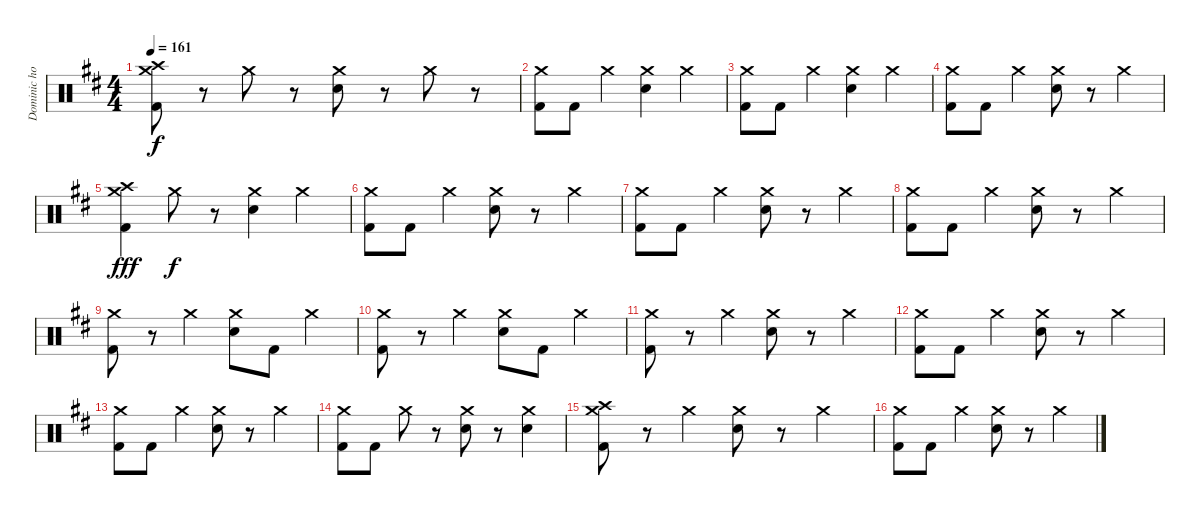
\track ("Dominic howard" "Dominic ho") {instrument percussion}
\staff {score}
\articulation defaults
\ts (4 4)
\tempo 161
\clef neutral
\ks d
("Crash high (hit)" "Crash medium (hit)" "Kick (hit) 2").8{dy f} r.8 "Crash medium (hit)".8 r.8 ("Crash medium (hit)" "Electric Snare (hit)").8 r.8 "Crash medium (hit)".8 r.8 |
("Crash medium (hit)" "Kick (hit) 2").8 "Kick (hit) 2".8 "Crash medium (hit)".4 ("Crash medium (hit)" "Electric Snare (hit)").4 "Crash medium (hit)".4 |
("Crash medium (hit)" "Kick (hit) 2").8 "Kick (hit) 2".8 "Crash medium (hit)".4 ("Crash medium (hit)" "Electric Snare (hit)").4 "Crash medium (hit)".4 |
("Crash medium (hit)" "Kick (hit) 2").8 "Kick (hit) 2".8 "Crash medium (hit)".4 ("Crash medium (hit)" "Electric Snare (hit)").8 r.8 "Crash medium (hit)".4 |
("Crash high (hit)" "Crash medium (hit)" "Kick (hit) 2").4{dy fff} "Crash medium (hit)".8{dy f} r.8 ("Crash medium (hit)" "Electric Snare (hit)").4 "Crash medium (hit)".4 |
("Crash medium (hit)" "Kick (hit) 2").8 "Kick (hit) 2".8 "Crash medium (hit)".4 ("Crash medium (hit)" "Electric Snare (hit)").8 r.8 "Crash medium (hit)".4 |
("Crash medium (hit)" "Kick (hit) 2").8 "Kick (hit) 2".8 "Crash medium (hit)".4 ("Crash medium (hit)" "Electric Snare (hit)").8 r.8 "Crash medium (hit)".4 |
("Crash medium (hit)" "Kick (hit) 2").8 "Kick (hit) 2".8 "Crash medium (hit)".4 ("Crash medium (hit)" "Electric Snare (hit)").8 r.8 "Crash medium (hit)".4 |
("Crash medium (hit)" "Kick (hit) 2").8 r.8 "Crash medium (hit)".4 ("Crash medium (hit)" "Electric Snare (hit)").8 "Kick (hit) 2".8 "Crash medium (hit)".4 |
("Crash medium (hit)" "Kick (hit) 2").8 r.8 "Crash medium (hit)".4 ("Crash medium (hit)" "Electric Snare (hit)").8 "Kick (hit) 2".8 "Crash medium (hit)".4 |
("Crash medium (hit)" "Kick (hit) 2").8 r.8 "Crash medium (hit)".4 ("Crash medium (hit)" "Electric Snare (hit)").8 r.8 "Crash medium (hit)".4 |
("Crash medium (hit)" "Kick (hit) 2").8 "Kick (hit) 2".8 "Crash medium (hit)".4 ("Crash medium (hit)" "Electric Snare (hit)").8 r.8 "Crash medium (hit)".4 |
("Crash medium (hit)" "Kick (hit) 2").8 "Kick (hit) 2".8 "Crash medium (hit)".4 ("Crash medium (hit)" "Electric Snare (hit)").8 r.8 "Crash medium (hit)".4 |
("Crash medium (hit)" "Kick (hit) 2").8 "Kick (hit) 2".8 "Crash medium (hit)".8 r.8 ("Crash medium (hit)" "Electric Snare (hit)").8 r.8 ("Crash medium (hit)" "Electric Snare (hit)").4 |
("Crash medium (hit)" "Crash high (hit)" "Kick (hit) 2").8 r.8 "Crash medium (hit)".4 ("Crash medium (hit)" "Electric Snare (hit)").8 r.8 "Crash medium (hit)".4 |
("Crash medium (hit)" "Kick (hit) 2").8 "Kick (hit) 2".8 "Crash medium (hit)".4 ("Crash medium (hit)" "Electric Snare (hit)").8 r.8 "Crash medium (hit)".4
